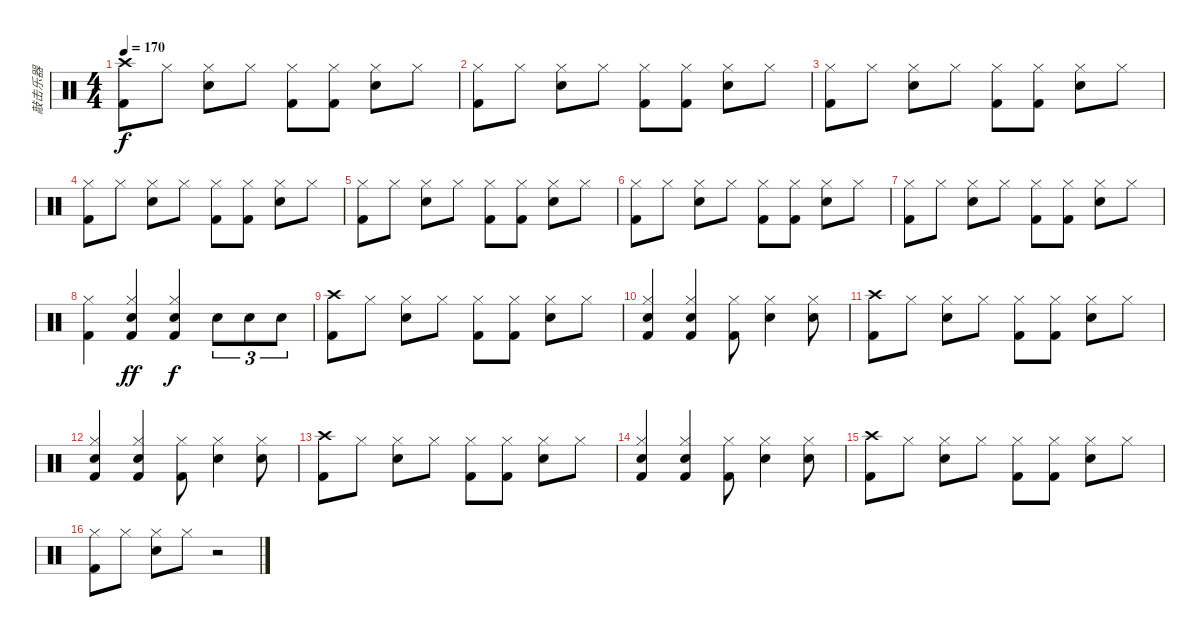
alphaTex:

\track ("敲击乐器" "敲击乐器") {instrument percussion}
\staff {score}
\articulation defaults
\ts (4 4)
\tempo 170
\clef neutral
\ks c
("Crash high (hit)" "Kick (hit) 2").8{dy f} "Hi-Hat (closed)".8 ("Hi-Hat (closed)" "Snare (hit) 2").8 "Hi-Hat (closed)".8 ("Hi-Hat (closed)" "Kick (hit) 2").8 ("Hi-Hat (closed)" "Kick (hit) 2").8 ("Hi-Hat (closed)" "Snare (hit) 2").8 "Hi-Hat (closed)".8 |
("Hi-Hat (closed)" "Kick (hit) 2").8 "Hi-Hat (closed)".8 ("Hi-Hat (closed)" "Snare (hit) 2").8 "Hi-Hat (closed)".8 ("Hi-Hat (closed)" "Kick (hit) 2").8 ("Hi-Hat (closed)" "Kick (hit) 2").8 ("Hi-Hat (closed)" "Snare (hit) 2").8 "Hi-Hat (closed)".8 |
("Hi-Hat (closed)" "Kick (hit) 2").8 "Hi-Hat (closed)".8 ("Hi-Hat (closed)" "Snare (hit) 2").8 "Hi-Hat (closed)".8 ("Hi-Hat (closed)" "Kick (hit) 2").8 ("Hi-Hat (closed)" "Kick (hit) 2").8 ("Hi-Hat (closed)" "Snare (hit) 2").8 "Hi-Hat (closed)".8 |
("Hi-Hat (closed)" "Kick (hit) 2").8 "Hi-Hat (closed)".8 ("Hi-Hat (closed)" "Snare (hit) 2").8 "Hi-Hat (closed)".8 ("Hi-Hat (closed)" "Kick (hit) 2").8 ("Hi-Hat (closed)" "Kick (hit) 2").8 ("Hi-Hat (closed)" "Snare (hit) 2").8 "Hi-Hat (closed)".8 |
("Hi-Hat (closed)" "Kick (hit) 2").8 "Hi-Hat (closed)".8 ("Hi-Hat (closed)" "Snare (hit) 2").8 "Hi-Hat (closed)".8 ("Hi-Hat (closed)" "Kick (hit) 2").8 ("Hi-Hat (closed)" "Kick (hit) 2").8 ("Hi-Hat (closed)" "Snare (hit) 2").8 "Hi-Hat (closed)".8 |
("Hi-Hat (closed)" "Kick (hit) 2").8 "Hi-Hat (closed)".8 ("Hi-Hat (closed)" "Snare (hit) 2").8 "Hi-Hat (closed)".8 ("Hi-Hat (closed)" "Kick (hit) 2").8 ("Hi-Hat (closed)" "Kick (hit) 2").8 ("Hi-Hat (closed)" "Snare (hit) 2").8 "Hi-Hat (closed)".8 |
("Hi-Hat (closed)" "Kick (hit) 2").8 "Hi-Hat (closed)".8 ("Hi-Hat (closed)" "Snare (hit) 2").8 "Hi-Hat (closed)".8 ("Hi-Hat (closed)" "Kick (hit) 2").8 ("Hi-Hat (closed)" "Kick (hit) 2").8 ("Hi-Hat (closed)" "Snare (hit) 2").8 "Hi-Hat (closed)".8 |
("Hi-Hat (closed)" "Kick (hit) 2").4 ("Hi-Hat (closed)" "Kick (hit) 2" "Snare (hit) 2").4{dy ff} ("Hi-Hat (closed)" "Kick (hit) 2" "Snare (hit) 2").4{dy f} "Snare (hit) 2".8{tu (3 2)} "Snare (hit) 2".8{tu (3 2)} "Snare (hit) 2".8{tu (3 2)} |
("Crash high (hit)" "Kick (hit) 2").8 "Hi-Hat (closed)".8 ("Hi-Hat (closed)" "Snare (hit) 2").8 "Hi-Hat (closed)".8 ("Hi-Hat (closed)" "Kick (hit) 2").8 ("Hi-Hat (closed)" "Kick (hit) 2").8 ("Hi-Hat (closed)" "Snare (hit) 2").8 "Hi-Hat (closed)".8 |
("Hi-Hat (closed)" "Snare (hit) 2" "Kick (hit) 2").4 ("Hi-Hat (closed)" "Snare (hit) 2" "Kick (hit) 2").4 ("Hi-Hat (closed)" "Kick (hit) 2").8 ("Hi-Hat (closed)" "Snare (hit) 2").4 ("Hi-Hat (closed)" "Snare (hit) 2").8 |
("Crash high (hit)" "Kick (hit) 2").8 "Hi-Hat (closed)".8 ("Hi-Hat (closed)" "Snare (hit) 2").8 "Hi-Hat (closed)".8 ("Hi-Hat (closed)" "Kick (hit) 2").8 ("Hi-Hat (closed)" "Kick (hit) 2").8 ("Hi-Hat (closed)" "Snare (hit) 2").8 "Hi-Hat (closed)".8 |
("Hi-Hat (closed)" "Snare (hit) 2" "Kick (hit) 2").4 ("Hi-Hat (closed)" "Snare (hit) 2" "Kick (hit) 2").4 ("Hi-Hat (closed)" "Kick (hit) 2").8 ("Hi-Hat (closed)" "Snare (hit) 2").4 ("Hi-Hat (closed)" "Snare (hit) 2").8 |
("Crash high (hit)" "Kick (hit) 2").8 "Hi-Hat (closed)".8 ("Hi-Hat (closed)" "Snare (hit) 2").8 "Hi-Hat (closed)".8 ("Hi-Hat (closed)" "Kick (hit) 2").8 ("Hi-Hat (closed)" "Kick (hit) 2").8 ("Hi-Hat (closed)" "Snare (hit) 2").8 "Hi-Hat (closed)".8 |
("Hi-Hat (closed)" "Snare (hit) 2" "Kick (hit) 2").4 ("Hi-Hat (closed)" "Snare (hit) 2" "Kick (hit) 2").4 ("Hi-Hat (closed)" "Kick (hit) 2").8 ("Hi-Hat (closed)" "Snare (hit) 2").4 ("Hi-Hat (closed)" "Snare (hit) 2").8 |
("Crash high (hit)" "Kick (hit) 2").8 "Hi-Hat (closed)".8 ("Hi-Hat (closed)" "Snare (hit) 2").8 "Hi-Hat (closed)".8 ("Hi-Hat (closed)" "Kick (hit) 2").8 ("Hi-Hat (closed)" "Kick (hit) 2").8 ("Hi-Hat (closed)" "Snare (hit) 2").8 "Hi-Hat (closed)".8 |
("Hi-Hat (closed)" "Kick (hit) 2").8 "Hi-Hat (closed)".8 ("Hi-Hat (closed)" "Snare (hit) 2").8 "Hi-Hat (closed)".8 r.2
